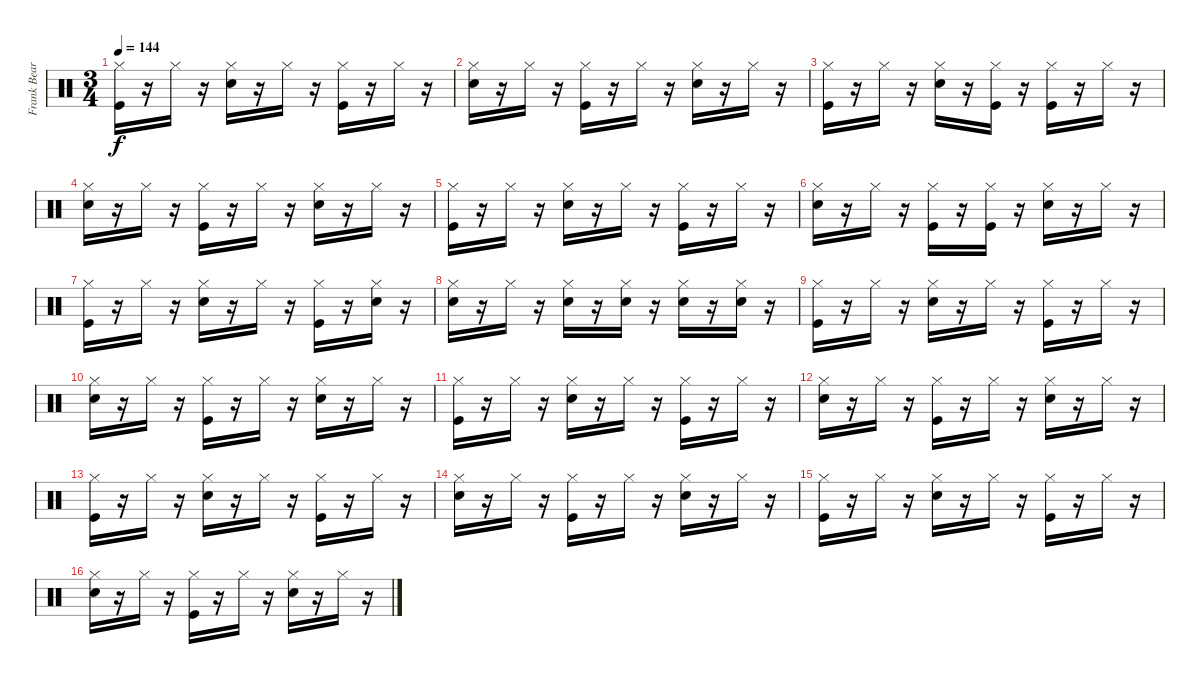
\track ("Frank Beard" "Frank Bear") {instrument percussion}
\staff {score}
\articulation defaults
\ts (3 4)
\tempo 144
\clef neutral
\ks c
("Hi-Hat (closed)" "Kick (hit)").16{dy f} r.16 "Hi-Hat (closed)".16 r.16 ("Hi-Hat (closed)" "Electric Snare (hit)").16 r.16 "Hi-Hat (closed)".16 r.16 ("Hi-Hat (closed)" "Kick (hit)").16 r.16 "Hi-Hat (closed)".16 r.16 |
("Hi-Hat (closed)" "Electric Snare (hit)").16 r.16 "Hi-Hat (closed)".16 r.16 ("Hi-Hat (closed)" "Kick (hit)").16 r.16 "Hi-Hat (closed)".16 r.16 ("Hi-Hat (closed)" "Electric Snare (hit)").16 r.16 "Hi-Hat (closed)".16 r.16 |
("Hi-Hat (closed)" "Kick (hit)").16 r.16 "Hi-Hat (closed)".16 r.16 ("Hi-Hat (closed)" "Electric Snare (hit)").16 r.16 ("Hi-Hat (closed)" "Kick (hit)").16 r.16 ("Hi-Hat (closed)" "Kick (hit)").16 r.16 "Hi-Hat (closed)".16 r.16 |
("Hi-Hat (closed)" "Electric Snare (hit)").16 r.16 "Hi-Hat (closed)".16 r.16 ("Hi-Hat (closed)" "Kick (hit)").16 r.16 "Hi-Hat (closed)".16 r.16 ("Hi-Hat (closed)" "Electric Snare (hit)").16 r.16 "Hi-Hat (closed)".16 r.16 |
("Hi-Hat (closed)" "Kick (hit)").16 r.16 "Hi-Hat (closed)".16 r.16 ("Hi-Hat (closed)" "Electric Snare (hit)").16 r.16 "Hi-Hat (closed)".16 r.16 ("Hi-Hat (closed)" "Kick (hit)").16 r.16 "Hi-Hat (closed)".16 r.16 |
("Hi-Hat (closed)" "Electric Snare (hit)").16 r.16 "Hi-Hat (closed)".16 r.16 ("Hi-Hat (closed)" "Kick (hit)").16 r.16 ("Hi-Hat (closed)" "Kick (hit)").16 r.16 ("Hi-Hat (closed)" "Electric Snare (hit)").16 r.16 "Hi-Hat (closed)".16 r.16 |
("Hi-Hat (closed)" "Kick (hit)").16 r.16 "Hi-Hat (closed)".16 r.16 ("Hi-Hat (closed)" "Electric Snare (hit)").16 r.16 "Hi-Hat (closed)".16 r.16 ("Hi-Hat (closed)" "Kick (hit)").16 r.16 ("Hi-Hat (closed)" "Electric Snare (hit)").16 r.16 |
("Hi-Hat (closed)" "Electric Snare (hit)").16 r.16 "Hi-Hat (closed)".16 r.16 ("Hi-Hat (closed)" "Electric Snare (hit)").16 r.16 ("Hi-Hat (closed)" "Electric Snare (hit)").16 r.16 ("Hi-Hat (closed)" "Electric Snare (hit)").16 r.16 ("Hi-Hat (closed)" "Electric Snare (hit)").16 r.16 |
("Hi-Hat (closed)" "Kick (hit)").16 r.16 "Hi-Hat (closed)".16 r.16 ("Hi-Hat (closed)" "Electric Snare (hit)").16 r.16 "Hi-Hat (closed)".16 r.16 ("Hi-Hat (closed)" "Kick (hit)").16 r.16 "Hi-Hat (closed)".16 r.16 |
("Hi-Hat (closed)" "Electric Snare (hit)").16 r.16 "Hi-Hat (closed)".16 r.16 ("Hi-Hat (closed)" "Kick (hit)").16 r.16 "Hi-Hat (closed)".16 r.16 ("Hi-Hat (closed)" "Electric Snare (hit)").16 r.16 "Hi-Hat (closed)".16 r.16 |
("Hi-Hat (closed)" "Kick (hit)").16 r.16 "Hi-Hat (closed)".16 r.16 ("Hi-Hat (closed)" "Electric Snare (hit)").16 r.16 "Hi-Hat (closed)".16 r.16 ("Hi-Hat (closed)" "Kick (hit)").16 r.16 "Hi-Hat (closed)".16 r.16 |
("Hi-Hat (closed)" "Electric Snare (hit)").16 r.16 "Hi-Hat (closed)".16 r.16 ("Hi-Hat (closed)" "Kick (hit)").16 r.16 "Hi-Hat (closed)".16 r.16 ("Hi-Hat (closed)" "Electric Snare (hit)").16 r.16 "Hi-Hat (closed)".16 r.16 |
("Hi-Hat (closed)" "Kick (hit)").16 r.16 "Hi-Hat (closed)".16 r.16 ("Hi-Hat (closed)" "Electric Snare (hit)").16 r.16 "Hi-Hat (closed)".16 r.16 ("Hi-Hat (closed)" "Kick (hit)").16 r.16 "Hi-Hat (closed)".16 r.16 |
("Hi-Hat (closed)" "Electric Snare (hit)").16 r.16 "Hi-Hat (closed)".16 r.16 ("Hi-Hat (closed)" "Kick (hit)").16 r.16 "Hi-Hat (closed)".16 r.16 ("Hi-Hat (closed)" "Electric Snare (hit)").16 r.16 "Hi-Hat (closed)".16 r.16 |
("Hi-Hat (closed)" "Kick (hit)").16 r.16 "Hi-Hat (closed)".16 r.16 ("Hi-Hat (closed)" "Electric Snare (hit)").16 r.16 "Hi-Hat (closed)".16 r.16 ("Hi-Hat (closed)" "Kick (hit)").16 r.16 "Hi-Hat (closed)".16 r.16 |
("Hi-Hat (closed)" "Electric Snare (hit)").16 r.16 "Hi-Hat (closed)".16 r.16 ("Hi-Hat (closed)" "Kick (hit)").16 r.16 "Hi-Hat (closed)".16 r.16 ("Hi-Hat (closed)" "Electric Snare (hit)").16 r.16 "Hi-Hat (closed)".16 r.16
